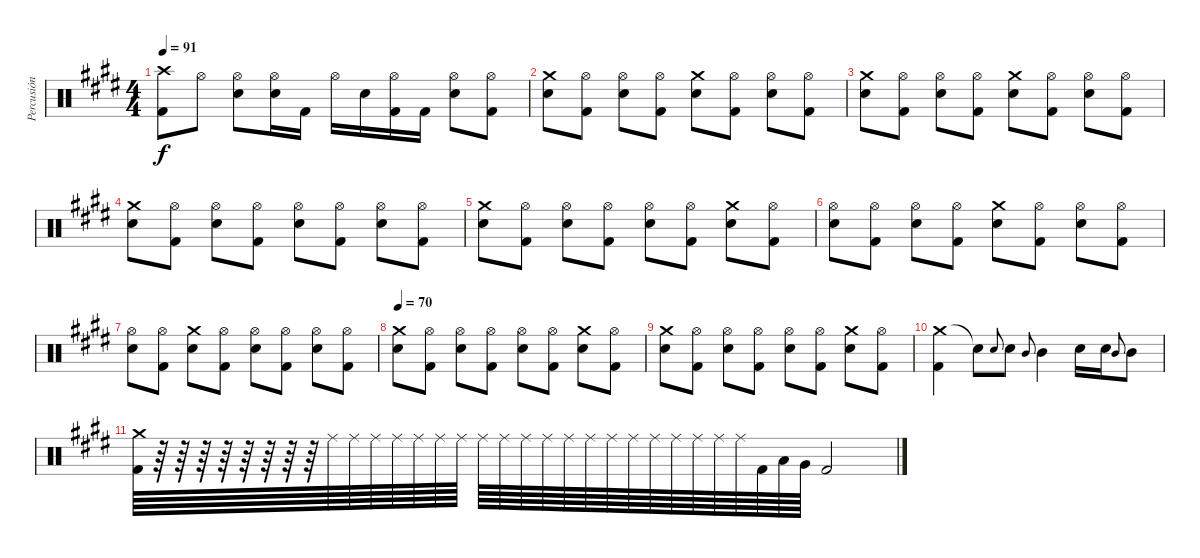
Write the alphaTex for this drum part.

\track ("Percusión" "Percusión") {instrument percussion}
\staff {score}
\articulation defaults
\ts (4 4)
\tempo 91
\clef neutral
\ks c#minor
("Crash high (hit)" "Kick (hit) 2").8{dy f} "Hi-Hat (open)".8 ("Hi-Hat (open)" "Electric Snare (hit)").8 ("Hi-Hat (open)" "Electric Snare (hit)").16 "Kick (hit) 2".16 "Hi-Hat (open)".16 "Electric Snare (hit)".16 ("Hi-Hat (open)" "Kick (hit) 2").16 "Kick (hit) 2".16 ("Hi-Hat (open)" "Electric Snare (hit)").8 ("Hi-Hat (open)" "Kick (hit) 2").8 |
("Crash medium (hit)" "Electric Snare (hit)").8 ("Hi-Hat (open)" "Kick (hit) 2").8 ("Hi-Hat (open)" "Electric Snare (hit)").8 ("Hi-Hat (open)" "Kick (hit) 2").8 ("Crash medium (hit)" "Electric Snare (hit)").8 ("Hi-Hat (open)" "Kick (hit) 2").8 ("Hi-Hat (open)" "Electric Snare (hit)").8 ("Hi-Hat (open)" "Kick (hit) 2").8 |
("Crash medium (hit)" "Electric Snare (hit)").8 ("Hi-Hat (open)" "Kick (hit) 2").8 ("Hi-Hat (open)" "Electric Snare (hit)").8 ("Hi-Hat (open)" "Kick (hit) 2").8 ("Crash medium (hit)" "Electric Snare (hit)").8 ("Hi-Hat (open)" "Kick (hit) 2").8 ("Hi-Hat (open)" "Electric Snare (hit)").8 ("Hi-Hat (open)" "Kick (hit) 2").8 |
("Crash medium (hit)" "Electric Snare (hit)").8 ("Hi-Hat (open)" "Kick (hit) 2").8 ("Hi-Hat (open)" "Electric Snare (hit)").8 ("Hi-Hat (open)" "Kick (hit) 2").8 ("Hi-Hat (open)" "Electric Snare (hit)").8 ("Hi-Hat (open)" "Kick (hit) 2").8 ("Hi-Hat (open)" "Electric Snare (hit)").8 ("Hi-Hat (open)" "Kick (hit) 2").8 |
("Crash medium (hit)" "Electric Snare (hit)").8 ("Hi-Hat (open)" "Kick (hit) 2").8 ("Hi-Hat (open)" "Electric Snare (hit)").8 ("Hi-Hat (open)" "Kick (hit) 2").8 ("Hi-Hat (open)" "Electric Snare (hit)").8 ("Hi-Hat (open)" "Kick (hit) 2").8 ("Crash medium (hit)" "Electric Snare (hit)").8 ("Hi-Hat (open)" "Kick (hit) 2").8 |
\ks e
("Hi-Hat (open)" "Electric Snare (hit)").8 ("Hi-Hat (open)" "Kick (hit) 2").8 ("Hi-Hat (open)" "Electric Snare (hit)").8 ("Hi-Hat (open)" "Kick (hit) 2").8 ("Crash medium (hit)" "Electric Snare (hit)").8 ("Hi-Hat (open)" "Kick (hit) 2").8 ("Hi-Hat (open)" "Electric Snare (hit)").8 ("Hi-Hat (open)" "Kick (hit) 2").8 |
\ks c#minor
("Hi-Hat (open)" "Electric Snare (hit)").8 ("Hi-Hat (open)" "Kick (hit) 2").8 ("Crash medium (hit)" "Electric Snare (hit)").8 ("Hi-Hat (open)" "Kick (hit) 2").8 ("Hi-Hat (open)" "Electric Snare (hit)").8 ("Hi-Hat (open)" "Kick (hit) 2").8 ("Hi-Hat (open)" "Electric Snare (hit)").8 ("Hi-Hat (open)" "Kick (hit) 2").8 |
\tempo 70
("Crash medium (hit)" "Electric Snare (hit)").8 ("Hi-Hat (open)" "Kick (hit) 2").8 ("Hi-Hat (open)" "Electric Snare (hit)").8 ("Hi-Hat (open)" "Kick (hit) 2").8 ("Hi-Hat (open)" "Electric Snare (hit)").8 ("Hi-Hat (open)" "Kick (hit) 2").8 ("Crash medium (hit)" "Electric Snare (hit)").8 ("Hi-Hat (open)" "Kick (hit) 2").8 |
("Crash medium (hit)" "Electric Snare (hit)").8 ("Hi-Hat (open)" "Kick (hit) 2").8 ("Hi-Hat (open)" "Electric Snare (hit)").8 ("Hi-Hat (open)" "Kick (hit) 2").8 ("Hi-Hat (open)" "Electric Snare (hit)").8 ("Hi-Hat (open)" "Kick (hit) 2").8 ("Crash medium (hit)" "Electric Snare (hit)").8 ("Hi-Hat (open)" "Kick (hit) 2").8 |
\ks e
("Crash medium (hit)" "Kick (hit) 2").4 "Electric Snare (hit)"{t}.8 "Electric Snare (hit)".8{gr onbeat} "Electric Snare (hit)".8 "Mid Tom (hit)".8{gr onbeat} "Mid Tom (hit)".4 "Electric Snare (hit)".16 "Electric Snare (hit)".16 "Mid Tom (hit)".8{gr onbeat} "Mid Tom (hit)".8 |
\ks c#minor
("Crash medium (hit)" "Kick (hit) 2").64 r.64 r.64 r.64 r.64 r.64 r.64 r.64 r.64 "Ride (middle)".64 "Ride (middle)".64 "Ride (middle)".64 "Ride (middle)".64 "Ride (middle)".64 "Ride (middle)".64 "Ride (middle)".64 "Ride (middle)".64 "Ride (middle)".64 "Ride (middle)".64 "Ride (middle)".64 "Ride (middle)".64 "Ride (middle)".64 "Ride (middle)".64 "Ride (middle)".64 "Ride (middle)".64 "Ride (middle)".64 "Ride (middle)".64 "Ride (middle)".64 "Ride (middle)".64 "Kick (hit) 2".64 "Low Floor Tom (hit)".64 "Very Low Tom (hit)".64 "Kick (hit) 2".2
